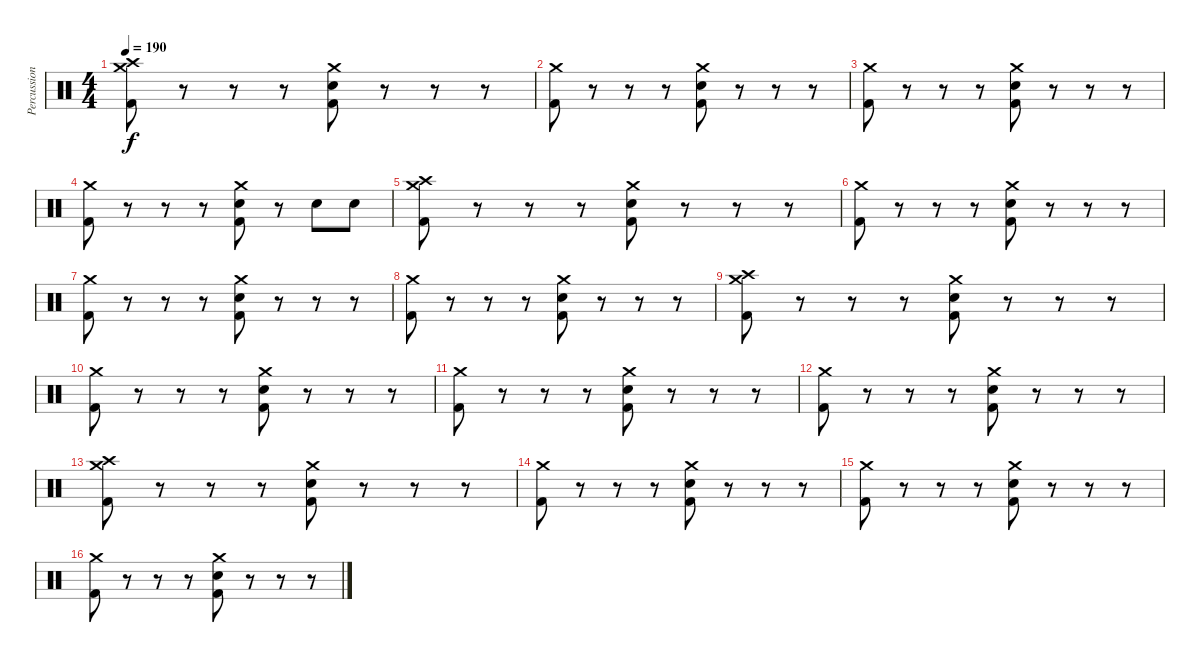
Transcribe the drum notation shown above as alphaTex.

\track ("Percussion" "Percussion") {instrument percussion}
\staff {score}
\articulation defaults
\ts (4 4)
\tempo 190
\clef neutral
\ks c
("Crash high (hit)" "Crash medium (hit)" "Kick (hit) 2").8{dy f} r.8 r.8 r.8 ("Crash medium (hit)" "Electric Snare (hit)" "Kick (hit) 2").8 r.8 r.8 r.8 |
("Crash medium (hit)" "Kick (hit) 2").8 r.8 r.8 r.8 ("Crash medium (hit)" "Electric Snare (hit)" "Kick (hit) 2").8 r.8 r.8 r.8 |
("Crash medium (hit)" "Kick (hit) 2").8 r.8 r.8 r.8 ("Crash medium (hit)" "Electric Snare (hit)" "Kick (hit) 2").8 r.8 r.8 r.8 |
("Crash medium (hit)" "Kick (hit) 2").8 r.8 r.8 r.8 ("Crash medium (hit)" "Electric Snare (hit)" "Kick (hit) 2").8 r.8 "Electric Snare (hit)".8 "Electric Snare (hit)".8 |
("Crash high (hit)" "Crash medium (hit)" "Kick (hit) 2").8 r.8 r.8 r.8 ("Crash medium (hit)" "Electric Snare (hit)" "Kick (hit) 2").8 r.8 r.8 r.8 |
("Crash medium (hit)" "Kick (hit) 2").8 r.8 r.8 r.8 ("Crash medium (hit)" "Electric Snare (hit)" "Kick (hit) 2").8 r.8 r.8 r.8 |
("Crash medium (hit)" "Kick (hit) 2").8 r.8 r.8 r.8 ("Crash medium (hit)" "Electric Snare (hit)" "Kick (hit) 2").8 r.8 r.8 r.8 |
("Crash medium (hit)" "Kick (hit) 2").8 r.8 r.8 r.8 ("Crash medium (hit)" "Electric Snare (hit)" "Kick (hit) 2").8 r.8 r.8 r.8 |
("Crash high (hit)" "Crash medium (hit)" "Kick (hit) 2").8 r.8 r.8 r.8 ("Crash medium (hit)" "Electric Snare (hit)" "Kick (hit) 2").8 r.8 r.8 r.8 |
("Crash medium (hit)" "Kick (hit) 2").8 r.8 r.8 r.8 ("Crash medium (hit)" "Electric Snare (hit)" "Kick (hit) 2").8 r.8 r.8 r.8 |
("Crash medium (hit)" "Kick (hit) 2").8 r.8 r.8 r.8 ("Crash medium (hit)" "Electric Snare (hit)" "Kick (hit) 2").8 r.8 r.8 r.8 |
("Crash medium (hit)" "Kick (hit) 2").8 r.8 r.8 r.8 ("Crash medium (hit)" "Electric Snare (hit)" "Kick (hit) 2").8 r.8 r.8 r.8 |
("Crash high (hit)" "Crash medium (hit)" "Kick (hit) 2").8 r.8 r.8 r.8 ("Crash medium (hit)" "Electric Snare (hit)" "Kick (hit) 2").8 r.8 r.8 r.8 |
("Crash medium (hit)" "Kick (hit) 2").8 r.8 r.8 r.8 ("Crash medium (hit)" "Electric Snare (hit)" "Kick (hit) 2").8 r.8 r.8 r.8 |
("Crash medium (hit)" "Kick (hit) 2").8 r.8 r.8 r.8 ("Crash medium (hit)" "Electric Snare (hit)" "Kick (hit) 2").8 r.8 r.8 r.8 |
("Crash medium (hit)" "Kick (hit) 2").8 r.8 r.8 r.8 ("Crash medium (hit)" "Electric Snare (hit)" "Kick (hit) 2").8 r.8 r.8 r.8
